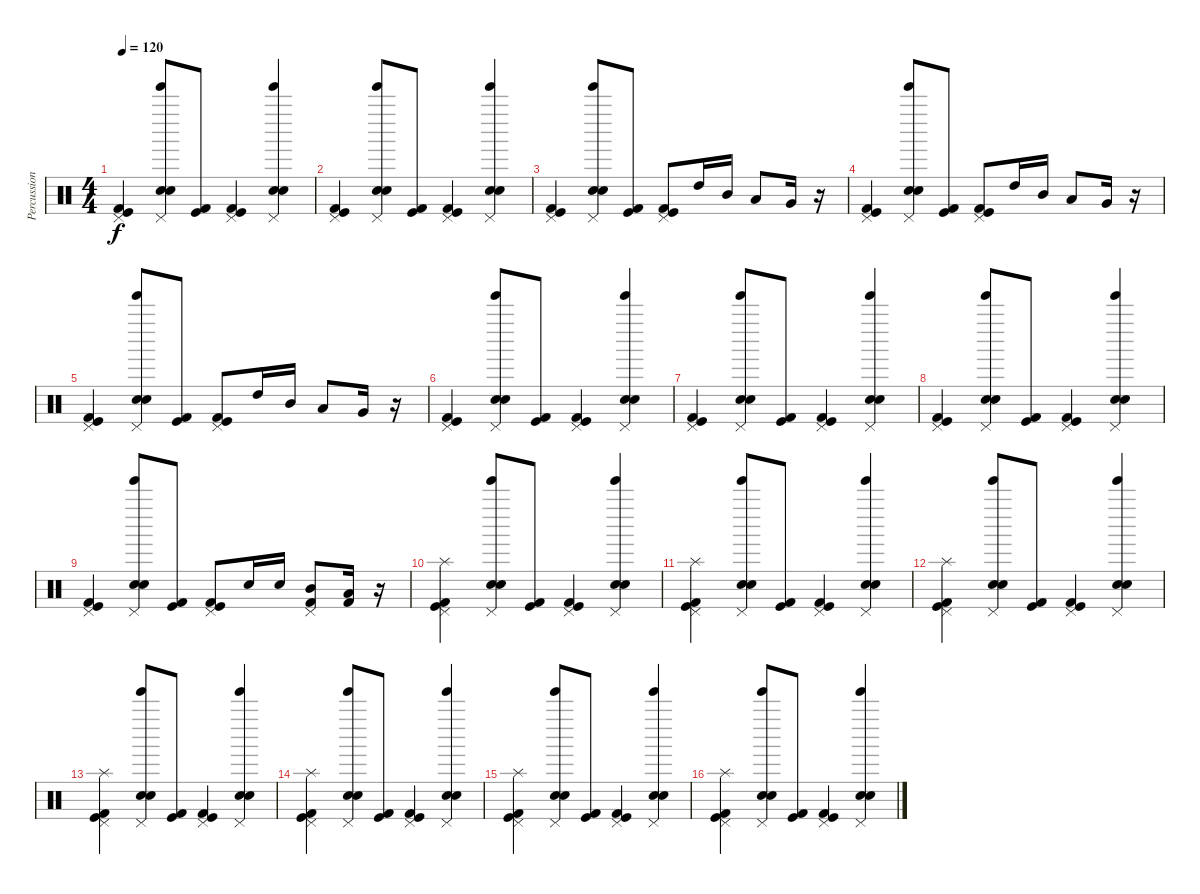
\track ("Percussion" "Percussion") {instrument percussion}
\staff {score}
\articulation defaults
\ts (4 4)
\tempo 120
\clef neutral
\ks c
("Pedal Hi-Hat (hit)" "Kick (hit)" "Kick (hit) 2").4{dy f} ("Tinkle Bell (hit)" "Pedal Hi-Hat (hit)" "Snare (hit) 2" "Electric Snare (hit)").8 ("Kick (hit)" "Kick (hit) 2").8 ("Pedal Hi-Hat (hit)" "Kick (hit)" "Kick (hit) 2").4 ("Tinkle Bell (hit)" "Pedal Hi-Hat (hit)" "Snare (hit) 2" "Electric Snare (hit)").4 |
("Pedal Hi-Hat (hit)" "Kick (hit)" "Kick (hit) 2").4 ("Tinkle Bell (hit)" "Pedal Hi-Hat (hit)" "Snare (hit) 2" "Electric Snare (hit)").8 ("Kick (hit)" "Kick (hit) 2").8 ("Pedal Hi-Hat (hit)" "Kick (hit)" "Kick (hit) 2").4 ("Tinkle Bell (hit)" "Pedal Hi-Hat (hit)" "Snare (hit) 2" "Electric Snare (hit)").4 |
("Pedal Hi-Hat (hit)" "Kick (hit)" "Kick (hit) 2").4 ("Tinkle Bell (hit)" "Pedal Hi-Hat (hit)" "Snare (hit) 2" "Electric Snare (hit)").8 ("Kick (hit)" "Kick (hit) 2").8 ("Pedal Hi-Hat (hit)" "Kick (hit)" "Kick (hit) 2").8 "High Tom (hit)".16 "Mid Tom (hit)".16 "Low Tom (hit)".8 "Very Low Tom (hit)".16 r.16 |
("Pedal Hi-Hat (hit)" "Kick (hit)" "Kick (hit) 2").4 ("Tinkle Bell (hit)" "Pedal Hi-Hat (hit)" "Snare (hit) 2" "Electric Snare (hit)").8 ("Kick (hit)" "Kick (hit) 2").8 ("Pedal Hi-Hat (hit)" "Kick (hit)" "Kick (hit) 2").8 "High Tom (hit)".16 "Mid Tom (hit)".16 "Low Tom (hit)".8 "Very Low Tom (hit)".16 r.16 |
("Pedal Hi-Hat (hit)" "Kick (hit)" "Kick (hit) 2").4 ("Tinkle Bell (hit)" "Pedal Hi-Hat (hit)" "Snare (hit) 2" "Electric Snare (hit)").8 ("Kick (hit)" "Kick (hit) 2").8 ("Pedal Hi-Hat (hit)" "Kick (hit)" "Kick (hit) 2").8 "High Tom (hit)".16 "Mid Tom (hit)".16 "Low Tom (hit)".8 "Very Low Tom (hit)".16 r.16 |
("Pedal Hi-Hat (hit)" "Kick (hit)" "Kick (hit) 2").4 ("Tinkle Bell (hit)" "Pedal Hi-Hat (hit)" "Snare (hit) 2" "Electric Snare (hit)").8 ("Kick (hit)" "Kick (hit) 2").8 ("Pedal Hi-Hat (hit)" "Kick (hit)" "Kick (hit) 2").4 ("Tinkle Bell (hit)" "Pedal Hi-Hat (hit)" "Snare (hit) 2" "Electric Snare (hit)").4 |
("Pedal Hi-Hat (hit)" "Kick (hit)" "Kick (hit) 2").4 ("Tinkle Bell (hit)" "Pedal Hi-Hat (hit)" "Snare (hit) 2" "Electric Snare (hit)").8 ("Kick (hit)" "Kick (hit) 2").8 ("Pedal Hi-Hat (hit)" "Kick (hit)" "Kick (hit) 2").4 ("Tinkle Bell (hit)" "Pedal Hi-Hat (hit)" "Snare (hit) 2" "Electric Snare (hit)").4 |
("Pedal Hi-Hat (hit)" "Kick (hit)" "Kick (hit) 2").4 ("Tinkle Bell (hit)" "Pedal Hi-Hat (hit)" "Snare (hit) 2" "Electric Snare (hit)").8 ("Kick (hit)" "Kick (hit) 2").8 ("Pedal Hi-Hat (hit)" "Kick (hit)" "Kick (hit) 2").4 ("Tinkle Bell (hit)" "Pedal Hi-Hat (hit)" "Snare (hit) 2" "Electric Snare (hit)").4 |
("Pedal Hi-Hat (hit)" "Kick (hit)" "Kick (hit) 2").4 ("Tinkle Bell (hit)" "Pedal Hi-Hat (hit)" "Snare (hit) 2" "Electric Snare (hit)").8 ("Kick (hit)" "Kick (hit) 2").8 ("Pedal Hi-Hat (hit)" "Kick (hit)" "Kick (hit) 2").8 "Snare (hit) 2".16 "Snare (hit) 2".16 ("Pedal Hi-Hat (hit)" "Mid Tom (hit)" "Kick (hit) 2").8 ("Low Tom (hit)" "Kick (hit) 2").16 r.16 |
("Splash (hit)" "Pedal Hi-Hat (hit)" "Kick (hit)" "Kick (hit) 2").4 ("Tinkle Bell (hit)" "Pedal Hi-Hat (hit)" "Snare (hit) 2" "Electric Snare (hit)").8 ("Kick (hit)" "Kick (hit) 2").8 ("Pedal Hi-Hat (hit)" "Kick (hit)" "Kick (hit) 2").4 ("Tinkle Bell (hit)" "Pedal Hi-Hat (hit)" "Snare (hit) 2" "Electric Snare (hit)").4 |
("Splash (hit)" "Pedal Hi-Hat (hit)" "Kick (hit)" "Kick (hit) 2").4 ("Tinkle Bell (hit)" "Pedal Hi-Hat (hit)" "Snare (hit) 2" "Electric Snare (hit)").8 ("Kick (hit)" "Kick (hit) 2").8 ("Pedal Hi-Hat (hit)" "Kick (hit)" "Kick (hit) 2").4 ("Tinkle Bell (hit)" "Pedal Hi-Hat (hit)" "Snare (hit) 2" "Electric Snare (hit)").4 |
("Splash (hit)" "Pedal Hi-Hat (hit)" "Kick (hit)" "Kick (hit) 2").4 ("Tinkle Bell (hit)" "Pedal Hi-Hat (hit)" "Snare (hit) 2" "Electric Snare (hit)").8 ("Kick (hit)" "Kick (hit) 2").8 ("Pedal Hi-Hat (hit)" "Kick (hit)" "Kick (hit) 2").4 ("Tinkle Bell (hit)" "Pedal Hi-Hat (hit)" "Snare (hit) 2" "Electric Snare (hit)").4 |
("Splash (hit)" "Pedal Hi-Hat (hit)" "Kick (hit)" "Kick (hit) 2").4 ("Tinkle Bell (hit)" "Pedal Hi-Hat (hit)" "Snare (hit) 2" "Electric Snare (hit)").8 ("Kick (hit)" "Kick (hit) 2").8 ("Pedal Hi-Hat (hit)" "Kick (hit)" "Kick (hit) 2").4 ("Tinkle Bell (hit)" "Pedal Hi-Hat (hit)" "Snare (hit) 2" "Electric Snare (hit)").4 |
("Splash (hit)" "Pedal Hi-Hat (hit)" "Kick (hit)" "Kick (hit) 2").4 ("Tinkle Bell (hit)" "Pedal Hi-Hat (hit)" "Snare (hit) 2" "Electric Snare (hit)").8 ("Kick (hit)" "Kick (hit) 2").8 ("Pedal Hi-Hat (hit)" "Kick (hit)" "Kick (hit) 2").4 ("Tinkle Bell (hit)" "Pedal Hi-Hat (hit)" "Snare (hit) 2" "Electric Snare (hit)").4 |
("Splash (hit)" "Pedal Hi-Hat (hit)" "Kick (hit)" "Kick (hit) 2").4 ("Tinkle Bell (hit)" "Pedal Hi-Hat (hit)" "Snare (hit) 2" "Electric Snare (hit)").8 ("Kick (hit)" "Kick (hit) 2").8 ("Pedal Hi-Hat (hit)" "Kick (hit)" "Kick (hit) 2").4 ("Tinkle Bell (hit)" "Pedal Hi-Hat (hit)" "Snare (hit) 2" "Electric Snare (hit)").4 |
("Splash (hit)" "Pedal Hi-Hat (hit)" "Kick (hit)" "Kick (hit) 2").4 ("Tinkle Bell (hit)" "Pedal Hi-Hat (hit)" "Snare (hit) 2" "Electric Snare (hit)").8 ("Kick (hit)" "Kick (hit) 2").8 ("Pedal Hi-Hat (hit)" "Kick (hit)" "Kick (hit) 2").4 ("Tinkle Bell (hit)" "Pedal Hi-Hat (hit)" "Snare (hit) 2" "Electric Snare (hit)").4
